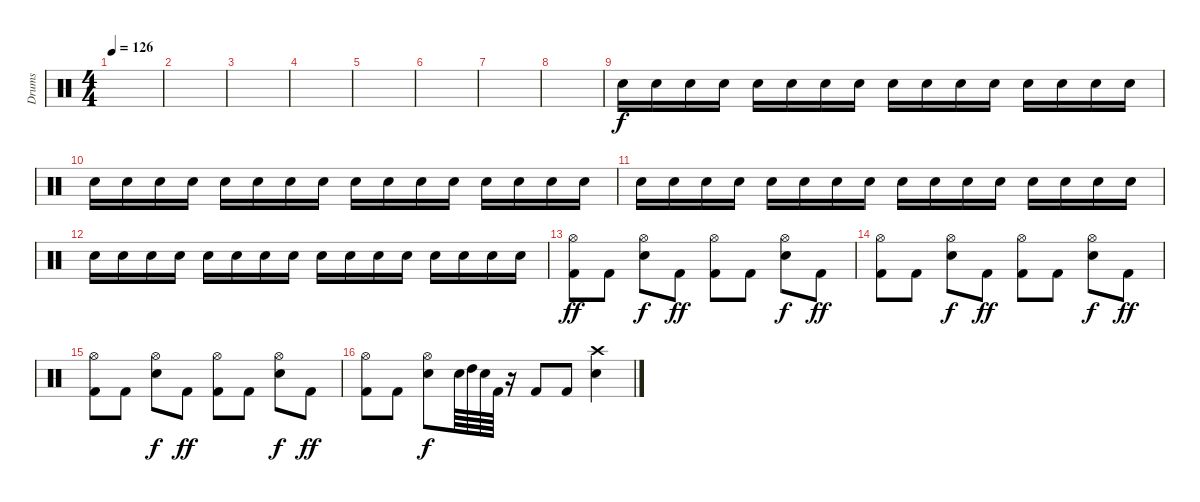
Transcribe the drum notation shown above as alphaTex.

\track ("Drums" "Drums") {instrument percussion}
\staff {score}
\articulation defaults
\ts (4 4)
\tempo 126
\clef neutral
\ks c
|
|
|
|
|
|
|
|
"Electric Snare (hit)".16 "Electric Snare (hit)".16 "Electric Snare (hit)".16 "Electric Snare (hit)".16 "Electric Snare (hit)".16 "Electric Snare (hit)".16 "Electric Snare (hit)".16 "Electric Snare (hit)".16 "Electric Snare (hit)".16 "Electric Snare (hit)".16 "Electric Snare (hit)".16 "Electric Snare (hit)".16 "Electric Snare (hit)".16 "Electric Snare (hit)".16 "Electric Snare (hit)".16 "Electric Snare (hit)".16 |
"Electric Snare (hit)".16 "Electric Snare (hit)".16 "Electric Snare (hit)".16 "Electric Snare (hit)".16 "Electric Snare (hit)".16 "Electric Snare (hit)".16 "Electric Snare (hit)".16 "Electric Snare (hit)".16 "Electric Snare (hit)".16 "Electric Snare (hit)".16 "Electric Snare (hit)".16 "Electric Snare (hit)".16 "Electric Snare (hit)".16 "Electric Snare (hit)".16 "Electric Snare (hit)".16 "Electric Snare (hit)".16 |
"Electric Snare (hit)".16 "Electric Snare (hit)".16 "Electric Snare (hit)".16 "Electric Snare (hit)".16 "Electric Snare (hit)".16 "Electric Snare (hit)".16 "Electric Snare (hit)".16 "Electric Snare (hit)".16 "Electric Snare (hit)".16 "Electric Snare (hit)".16 "Electric Snare (hit)".16 "Electric Snare (hit)".16 "Electric Snare (hit)".16 "Electric Snare (hit)".16 "Electric Snare (hit)".16 "Electric Snare (hit)".16 |
"Electric Snare (hit)".16 "Electric Snare (hit)".16 "Electric Snare (hit)".16 "Electric Snare (hit)".16 "Electric Snare (hit)".16 "Electric Snare (hit)".16 "Electric Snare (hit)".16 "Electric Snare (hit)".16 "Electric Snare (hit)".16 "Electric Snare (hit)".16 "Electric Snare (hit)".16 "Electric Snare (hit)".16 "Electric Snare (hit)".16 "Electric Snare (hit)".16 "Electric Snare (hit)".16 "Electric Snare (hit)".16 |
("Hi-Hat (open)" "Kick (hit) 2").8{dy ff} "Kick (hit) 2".8 ("Hi-Hat (open)" "Electric Snare (hit)").8{dy f} "Kick (hit) 2".8{dy ff} ("Hi-Hat (open)" "Kick (hit) 2").8 "Kick (hit) 2".8 ("Hi-Hat (open)" "Electric Snare (hit)").8{dy f} "Kick (hit) 2".8{dy ff} |
("Hi-Hat (open)" "Kick (hit) 2").8 "Kick (hit) 2".8 ("Hi-Hat (open)" "Electric Snare (hit)").8{dy f} "Kick (hit) 2".8{dy ff} ("Hi-Hat (open)" "Kick (hit) 2").8 "Kick (hit) 2".8 ("Hi-Hat (open)" "Electric Snare (hit)").8{dy f} "Kick (hit) 2".8{dy ff} |
("Hi-Hat (open)" "Kick (hit) 2").8 "Kick (hit) 2".8 ("Hi-Hat (open)" "Electric Snare (hit)").8{dy f} "Kick (hit) 2".8{dy ff} ("Hi-Hat (open)" "Kick (hit) 2").8 "Kick (hit) 2".8 ("Hi-Hat (open)" "Electric Snare (hit)").8{dy f} "Kick (hit) 2".8{dy ff} |
("Hi-Hat (open)" "Kick (hit) 2").8 "Kick (hit) 2".8 ("Hi-Hat (open)" "Electric Snare (hit)").8{dy f} "Electric Snare (hit)".64 "High Tom (hit)".64 "Electric Snare (hit)".64 "Kick (hit) 2".64 r.16 "Kick (hit) 2".8 "Kick (hit) 2".8 ("Crash high (hit)" "Electric Snare (hit)").4
